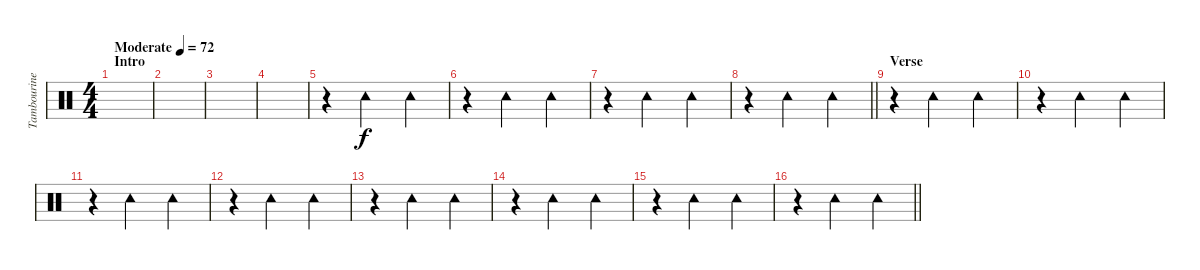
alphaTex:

\track ("Tambourine" "Tambourine") {instrument percussion}
\staff {score}
\articulation defaults
\ts (4 4)
\section ("" "Intro")
\tempo (72 "Moderate")
\clef neutral
\ks c
|
|
|
|
r.4 "Tambourine (hit)".2 "Tambourine (hit)".4 |
r.4 "Tambourine (hit)".2 "Tambourine (hit)".4 |
r.4 "Tambourine (hit)".2 "Tambourine (hit)".4 |
\barLineRight lightlight
r.4 "Tambourine (hit)".2 "Tambourine (hit)".4 |
\section ("" "Verse")
r.4 "Tambourine (hit)".2 "Tambourine (hit)".4 |
r.4 "Tambourine (hit)".2 "Tambourine (hit)".4 |
r.4 "Tambourine (hit)".2 "Tambourine (hit)".4 |
r.4 "Tambourine (hit)".2 "Tambourine (hit)".4 |
r.4 "Tambourine (hit)".2 "Tambourine (hit)".4 |
r.4 "Tambourine (hit)".2 "Tambourine (hit)".4 |
r.4 "Tambourine (hit)".2 "Tambourine (hit)".4 |
\barLineRight lightlight
r.4 "Tambourine (hit)".2 "Tambourine (hit)".4
